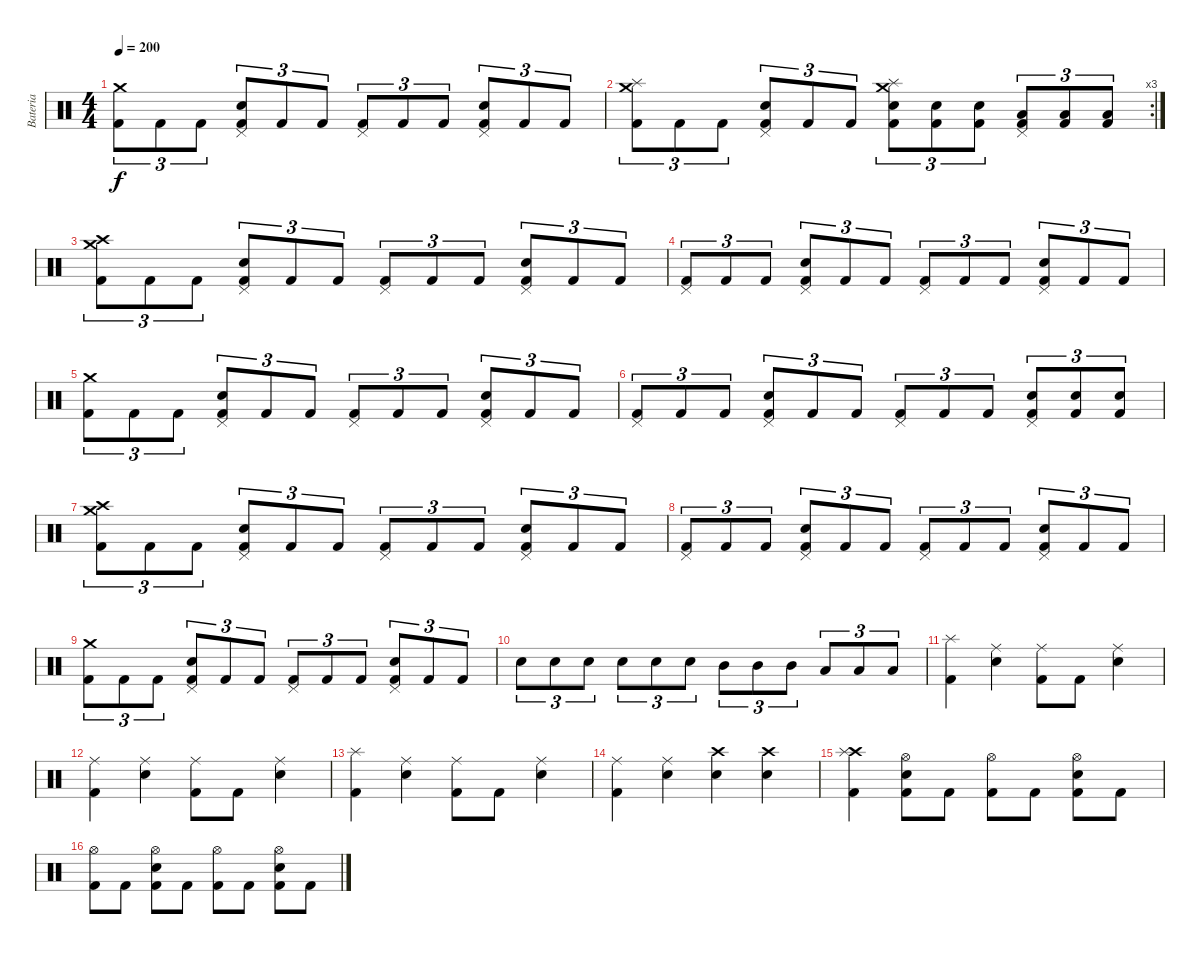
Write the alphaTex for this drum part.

\track ("Bateria " "Bateria ") {instrument percussion}
\staff {score}
\articulation defaults
\ts (4 4)
\tempo 200
\clef neutral
\ks c
("Kick (hit) 2" "Crash medium (hit)").8{tu (3 2) dy f} "Kick (hit) 2".8{tu (3 2)} "Kick (hit) 2".8{tu (3 2)} ("Kick (hit) 2" "Electric Snare (hit)" "Pedal Hi-Hat (hit)").8{tu (3 2)} "Kick (hit) 2".8{tu (3 2)} "Kick (hit) 2".8{tu (3 2)} ("Kick (hit) 2" "Pedal Hi-Hat (hit)").8{tu (3 2)} "Kick (hit) 2".8{tu (3 2)} "Kick (hit) 2".8{tu (3 2)} ("Kick (hit) 2" "Electric Snare (hit)" "Pedal Hi-Hat (hit)").8{tu (3 2)} "Kick (hit) 2".8{tu (3 2)} "Kick (hit) 2".8{tu (3 2)} |
\rc 3
("Kick (hit) 2" "Splash (hit)" "Crash medium (hit)").8{tu (3 2)} "Kick (hit) 2".8{tu (3 2)} "Kick (hit) 2".8{tu (3 2)} ("Kick (hit) 2" "Electric Snare (hit)" "Pedal Hi-Hat (hit)").8{tu (3 2)} "Kick (hit) 2".8{tu (3 2)} "Kick (hit) 2".8{tu (3 2)} ("Kick (hit) 2" "Electric Snare (hit)" "Splash (hit)" "Crash medium (hit)").8{tu (3 2)} ("Kick (hit) 2" "Electric Snare (hit)").8{tu (3 2)} ("Kick (hit) 2" "Electric Snare (hit)").8{tu (3 2)} ("Kick (hit) 2" "Low Tom (hit)" "Pedal Hi-Hat (hit)").8{tu (3 2)} ("Kick (hit) 2" "Low Tom (hit)").8{tu (3 2)} ("Kick (hit) 2" "Low Tom (hit)").8{tu (3 2)} |
("Kick (hit) 2" "Crash high (hit)" "Crash medium (hit)").8{tu (3 2)} "Kick (hit) 2".8{tu (3 2)} "Kick (hit) 2".8{tu (3 2)} ("Kick (hit) 2" "Electric Snare (hit)" "Pedal Hi-Hat (hit)").8{tu (3 2)} "Kick (hit) 2".8{tu (3 2)} "Kick (hit) 2".8{tu (3 2)} ("Kick (hit) 2" "Pedal Hi-Hat (hit)").8{tu (3 2)} "Kick (hit) 2".8{tu (3 2)} "Kick (hit) 2".8{tu (3 2)} ("Kick (hit) 2" "Electric Snare (hit)" "Pedal Hi-Hat (hit)").8{tu (3 2)} "Kick (hit) 2".8{tu (3 2)} "Kick (hit) 2".8{tu (3 2)} |
("Kick (hit) 2" "Pedal Hi-Hat (hit)").8{tu (3 2)} "Kick (hit) 2".8{tu (3 2)} "Kick (hit) 2".8{tu (3 2)} ("Kick (hit) 2" "Electric Snare (hit)" "Pedal Hi-Hat (hit)").8{tu (3 2)} "Kick (hit) 2".8{tu (3 2)} "Kick (hit) 2".8{tu (3 2)} ("Kick (hit) 2" "Pedal Hi-Hat (hit)").8{tu (3 2)} "Kick (hit) 2".8{tu (3 2)} "Kick (hit) 2".8{tu (3 2)} ("Kick (hit) 2" "Electric Snare (hit)" "Pedal Hi-Hat (hit)").8{tu (3 2)} "Kick (hit) 2".8{tu (3 2)} "Kick (hit) 2".8{tu (3 2)} |
("Kick (hit) 2" "Crash medium (hit)").8{tu (3 2)} "Kick (hit) 2".8{tu (3 2)} "Kick (hit) 2".8{tu (3 2)} ("Kick (hit) 2" "Electric Snare (hit)" "Pedal Hi-Hat (hit)").8{tu (3 2)} "Kick (hit) 2".8{tu (3 2)} "Kick (hit) 2".8{tu (3 2)} ("Kick (hit) 2" "Pedal Hi-Hat (hit)").8{tu (3 2)} "Kick (hit) 2".8{tu (3 2)} "Kick (hit) 2".8{tu (3 2)} ("Kick (hit) 2" "Electric Snare (hit)" "Pedal Hi-Hat (hit)").8{tu (3 2)} "Kick (hit) 2".8{tu (3 2)} "Kick (hit) 2".8{tu (3 2)} |
("Kick (hit) 2" "Pedal Hi-Hat (hit)").8{tu (3 2)} "Kick (hit) 2".8{tu (3 2)} "Kick (hit) 2".8{tu (3 2)} ("Kick (hit) 2" "Electric Snare (hit)" "Pedal Hi-Hat (hit)").8{tu (3 2)} "Kick (hit) 2".8{tu (3 2)} "Kick (hit) 2".8{tu (3 2)} ("Kick (hit) 2" "Pedal Hi-Hat (hit)").8{tu (3 2)} "Kick (hit) 2".8{tu (3 2)} "Kick (hit) 2".8{tu (3 2)} ("Kick (hit) 2" "Electric Snare (hit)" "Pedal Hi-Hat (hit)").8{tu (3 2)} ("Kick (hit) 2" "Electric Snare (hit)").8{tu (3 2)} ("Kick (hit) 2" "Electric Snare (hit)").8{tu (3 2)} |
("Kick (hit) 2" "Crash high (hit)" "Crash medium (hit)").8{tu (3 2)} "Kick (hit) 2".8{tu (3 2)} "Kick (hit) 2".8{tu (3 2)} ("Kick (hit) 2" "Electric Snare (hit)" "Pedal Hi-Hat (hit)").8{tu (3 2)} "Kick (hit) 2".8{tu (3 2)} "Kick (hit) 2".8{tu (3 2)} ("Kick (hit) 2" "Pedal Hi-Hat (hit)").8{tu (3 2)} "Kick (hit) 2".8{tu (3 2)} "Kick (hit) 2".8{tu (3 2)} ("Kick (hit) 2" "Electric Snare (hit)" "Pedal Hi-Hat (hit)").8{tu (3 2)} "Kick (hit) 2".8{tu (3 2)} "Kick (hit) 2".8{tu (3 2)} |
("Kick (hit) 2" "Pedal Hi-Hat (hit)").8{tu (3 2)} "Kick (hit) 2".8{tu (3 2)} "Kick (hit) 2".8{tu (3 2)} ("Kick (hit) 2" "Electric Snare (hit)" "Pedal Hi-Hat (hit)").8{tu (3 2)} "Kick (hit) 2".8{tu (3 2)} "Kick (hit) 2".8{tu (3 2)} ("Kick (hit) 2" "Pedal Hi-Hat (hit)").8{tu (3 2)} "Kick (hit) 2".8{tu (3 2)} "Kick (hit) 2".8{tu (3 2)} ("Kick (hit) 2" "Electric Snare (hit)" "Pedal Hi-Hat (hit)").8{tu (3 2)} "Kick (hit) 2".8{tu (3 2)} "Kick (hit) 2".8{tu (3 2)} |
("Kick (hit) 2" "Crash medium (hit)").8{tu (3 2)} "Kick (hit) 2".8{tu (3 2)} "Kick (hit) 2".8{tu (3 2)} ("Kick (hit) 2" "Electric Snare (hit)" "Pedal Hi-Hat (hit)").8{tu (3 2)} "Kick (hit) 2".8{tu (3 2)} "Kick (hit) 2".8{tu (3 2)} ("Kick (hit) 2" "Pedal Hi-Hat (hit)").8{tu (3 2)} "Kick (hit) 2".8{tu (3 2)} "Kick (hit) 2".8{tu (3 2)} ("Kick (hit) 2" "Electric Snare (hit)" "Pedal Hi-Hat (hit)").8{tu (3 2)} "Kick (hit) 2".8{tu (3 2)} "Kick (hit) 2".8{tu (3 2)} |
"Electric Snare (hit)".8{tu (3 2)} "Electric Snare (hit)".8{tu (3 2)} "Electric Snare (hit)".8{tu (3 2)} "Electric Snare (hit)".8{tu (3 2)} "Electric Snare (hit)".8{tu (3 2)} "Electric Snare (hit)".8{tu (3 2)} "Mid Tom (hit)".8{tu (3 2)} "Mid Tom (hit)".8{tu (3 2)} "Mid Tom (hit)".8{tu (3 2)} "Low Tom (hit)".8{tu (3 2)} "Low Tom (hit)".8{tu (3 2)} "Low Tom (hit)".8{tu (3 2)} |
("Kick (hit) 2" "Splash (hit)").4 ("Electric Snare (hit)" "Ride (middle)").4 ("Kick (hit) 2" "Ride (middle)").8 "Kick (hit) 2".8 ("Electric Snare (hit)" "Ride (middle)").4 |
("Kick (hit) 2" "Ride (middle)").4 ("Electric Snare (hit)" "Ride (middle)").4 ("Kick (hit) 2" "Ride (middle)").8 "Kick (hit) 2".8 ("Electric Snare (hit)" "Ride (middle)").4 |
("Kick (hit) 2" "Splash (hit)").4 ("Electric Snare (hit)" "Ride (middle)").4 ("Kick (hit) 2" "Ride (middle)").8 "Kick (hit) 2".8 ("Electric Snare (hit)" "Ride (middle)").4 |
("Kick (hit) 2" "Ride (middle)").4 ("Electric Snare (hit)" "Ride (middle)").4 ("Electric Snare (hit)" "Crash high (hit)").4 ("Electric Snare (hit)" "Crash high (hit)").4 |
("Kick (hit) 2" "Crash high (hit)" "Splash (hit)").4 ("Kick (hit) 2" "Electric Snare (hit)" "Hi-Hat (open)").8 "Kick (hit) 2".8 ("Kick (hit) 2" "Hi-Hat (open)").8 "Kick (hit) 2".8 ("Kick (hit) 2" "Electric Snare (hit)" "Hi-Hat (open)").8 "Kick (hit) 2".8 |
("Kick (hit) 2" "Hi-Hat (open)").8 "Kick (hit) 2".8 ("Kick (hit) 2" "Electric Snare (hit)" "Hi-Hat (open)").8 "Kick (hit) 2".8 ("Kick (hit) 2" "Hi-Hat (open)").8 "Kick (hit) 2".8 ("Kick (hit) 2" "Electric Snare (hit)" "Hi-Hat (open)").8 "Kick (hit) 2".8
